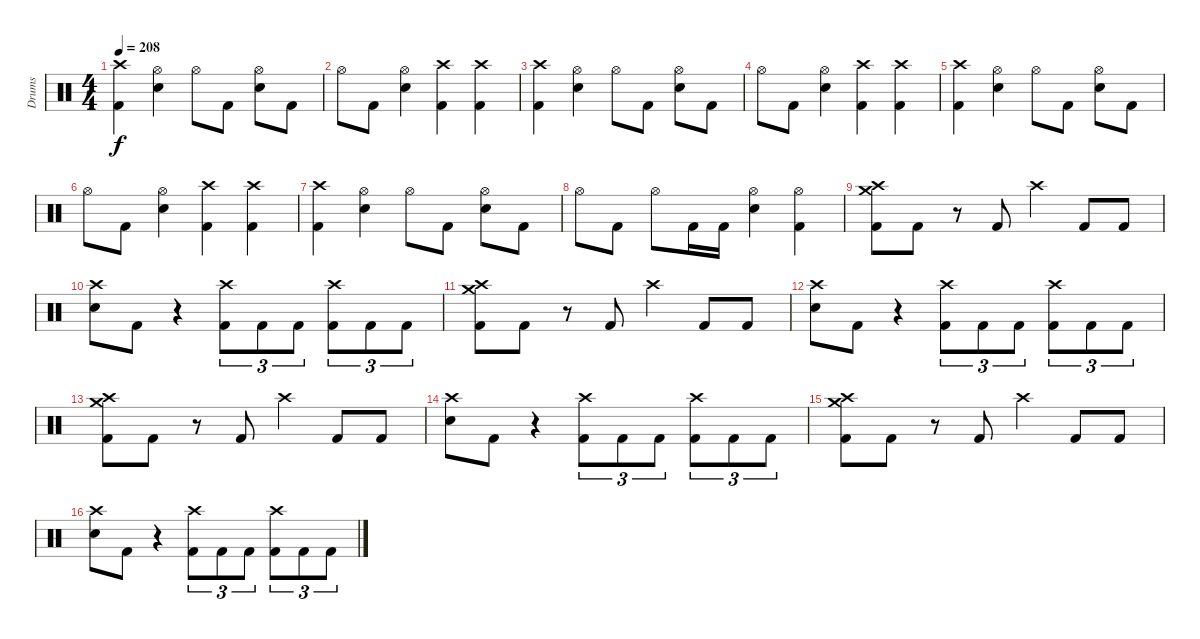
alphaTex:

\track ("Drums" "Drums") {instrument percussion}
\staff {score}
\articulation defaults
\ts (4 4)
\section ("" "")
\tempo 208
\clef neutral
\ks c
("Crash high (hit)" "Kick (hit) 2").4{dy f} ("Hi-Hat (open)" "Electric Snare (hit)").4 "Hi-Hat (open)".8 "Kick (hit) 2".8 ("Hi-Hat (open)" "Electric Snare (hit)").8 "Kick (hit) 2".8 |
"Hi-Hat (open)".8 "Kick (hit) 2".8 ("Hi-Hat (open)" "Electric Snare (hit)").4 ("Crash high (hit)" "Kick (hit) 2").4 ("Crash high (hit)" "Kick (hit) 2").4 |
("Crash high (hit)" "Kick (hit) 2").4 ("Hi-Hat (open)" "Electric Snare (hit)").4 "Hi-Hat (open)".8 "Kick (hit) 2".8 ("Hi-Hat (open)" "Electric Snare (hit)").8 "Kick (hit) 2".8 |
"Hi-Hat (open)".8 "Kick (hit) 2".8 ("Hi-Hat (open)" "Electric Snare (hit)").4 ("Crash high (hit)" "Kick (hit) 2").4 ("Crash high (hit)" "Kick (hit) 2").4 |
("Crash high (hit)" "Kick (hit) 2").4 ("Hi-Hat (open)" "Electric Snare (hit)").4 "Hi-Hat (open)".8 "Kick (hit) 2".8 ("Hi-Hat (open)" "Electric Snare (hit)").8 "Kick (hit) 2".8 |
"Hi-Hat (open)".8 "Kick (hit) 2".8 ("Hi-Hat (open)" "Electric Snare (hit)").4 ("Crash high (hit)" "Kick (hit) 2").4 ("Crash high (hit)" "Kick (hit) 2").4 |
("Crash high (hit)" "Kick (hit) 2").4 ("Hi-Hat (open)" "Electric Snare (hit)").4 "Hi-Hat (open)".8 "Kick (hit) 2".8 ("Hi-Hat (open)" "Electric Snare (hit)").8 "Kick (hit) 2".8 |
"Hi-Hat (open)".8 "Kick (hit) 2".8 "Hi-Hat (open)".8 "Kick (hit) 2".16 "Kick (hit) 2".16 ("Hi-Hat (open)" "Electric Snare (hit)").4 ("Hi-Hat (open)" "Kick (hit) 2").4 |
\section ("" "")
("Crash high (hit)" "Crash medium (hit)" "Kick (hit) 2").8 "Kick (hit) 2".8 r.8 "Kick (hit) 2".8 "Crash high (hit)".4 "Kick (hit) 2".8 "Kick (hit) 2".8 |
("Crash high (hit)" "Electric Snare (hit)").8 "Kick (hit) 2".8 r.4 ("Crash high (hit)" "Kick (hit) 2").8{tu (3 2)} "Kick (hit) 2".8{tu (3 2)} "Kick (hit) 2".8{tu (3 2)} ("Crash high (hit)" "Kick (hit) 2").8{tu (3 2)} "Kick (hit) 2".8{tu (3 2)} "Kick (hit) 2".8{tu (3 2)} |
("Crash high (hit)" "Crash medium (hit)" "Kick (hit) 2").8 "Kick (hit) 2".8 r.8 "Kick (hit) 2".8 "Crash high (hit)".4 "Kick (hit) 2".8 "Kick (hit) 2".8 |
("Crash high (hit)" "Electric Snare (hit)").8 "Kick (hit) 2".8 r.4 ("Crash high (hit)" "Kick (hit) 2").8{tu (3 2)} "Kick (hit) 2".8{tu (3 2)} "Kick (hit) 2".8{tu (3 2)} ("Crash high (hit)" "Kick (hit) 2").8{tu (3 2)} "Kick (hit) 2".8{tu (3 2)} "Kick (hit) 2".8{tu (3 2)} |
("Crash high (hit)" "Crash medium (hit)" "Kick (hit) 2").8 "Kick (hit) 2".8 r.8 "Kick (hit) 2".8 "Crash high (hit)".4 "Kick (hit) 2".8 "Kick (hit) 2".8 |
("Crash high (hit)" "Electric Snare (hit)").8 "Kick (hit) 2".8 r.4 ("Crash high (hit)" "Kick (hit) 2").8{tu (3 2)} "Kick (hit) 2".8{tu (3 2)} "Kick (hit) 2".8{tu (3 2)} ("Crash high (hit)" "Kick (hit) 2").8{tu (3 2)} "Kick (hit) 2".8{tu (3 2)} "Kick (hit) 2".8{tu (3 2)} |
("Crash high (hit)" "Crash medium (hit)" "Kick (hit) 2").8 "Kick (hit) 2".8 r.8 "Kick (hit) 2".8 "Crash high (hit)".4 "Kick (hit) 2".8 "Kick (hit) 2".8 |
("Crash high (hit)" "Electric Snare (hit)").8 "Kick (hit) 2".8 r.4 ("Crash high (hit)" "Kick (hit) 2").8{tu (3 2)} "Kick (hit) 2".8{tu (3 2)} "Kick (hit) 2".8{tu (3 2)} ("Crash high (hit)" "Kick (hit) 2").8{tu (3 2)} "Kick (hit) 2".8{tu (3 2)} "Kick (hit) 2".8{tu (3 2)}
